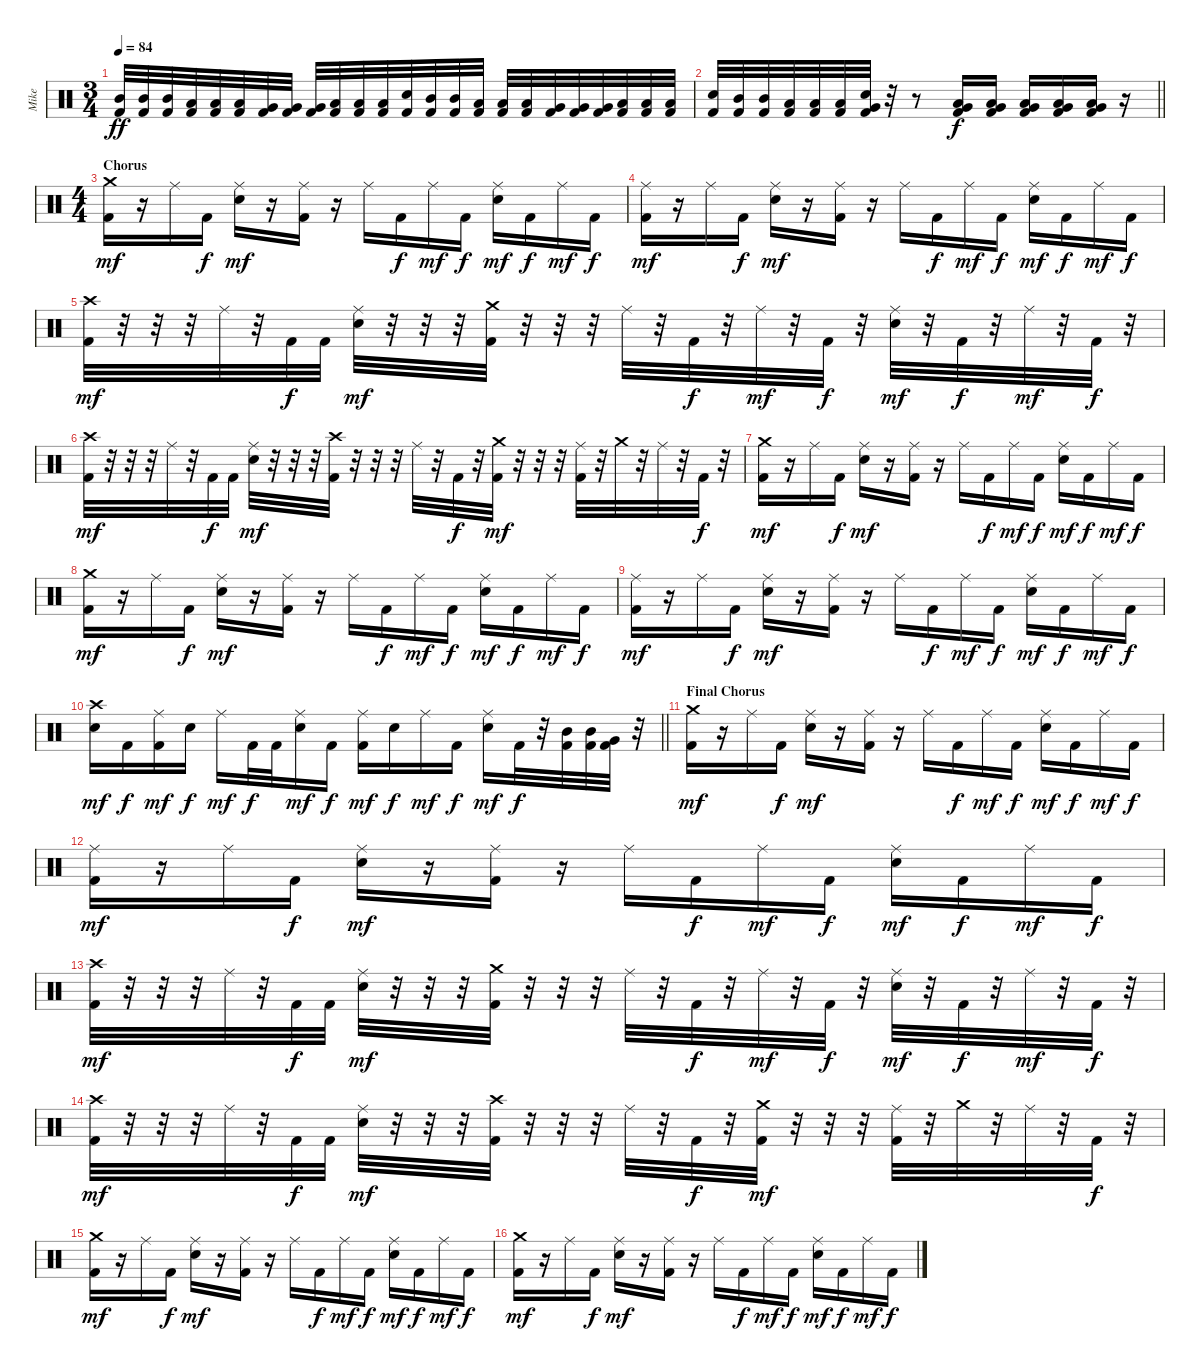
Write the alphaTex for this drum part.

\track ("Mike" "Mike") {instrument percussion}
\staff {score}
\articulation defaults
\ts (3 4)
\tempo 84
\clef neutral
\ks c
("Mid Tom (hit)" "Kick (hit) 2").32{dy ff} ("Mid Tom (hit)" "Kick (hit) 2").32 ("Mid Tom (hit)" "Kick (hit) 2").32 ("Low Tom (hit)" "Kick (hit) 2").32 ("Low Tom (hit)" "Kick (hit) 2").32 ("Low Tom (hit)" "Kick (hit) 2").32 ("Very Low Tom (hit)" "Kick (hit) 2").32 ("Very Low Tom (hit)" "Kick (hit) 2").32 ("Very Low Tom (hit)" "Kick (hit) 2").32 ("Low Floor Tom (hit)" "Kick (hit) 2").32 ("Low Floor Tom (hit)" "Kick (hit) 2").32 ("Low Floor Tom (hit)" "Kick (hit) 2").32 ("Snare (hit) 2" "Kick (hit) 2").32 ("Mid Tom (hit)" "Kick (hit) 2").32 ("Mid Tom (hit)" "Kick (hit) 2").32 ("Low Tom (hit)" "Kick (hit) 2").32 ("Low Tom (hit)" "Kick (hit) 2").32 ("Low Tom (hit)" "Kick (hit) 2").32 ("Very Low Tom (hit)" "Kick (hit) 2").32 ("Very Low Tom (hit)" "Kick (hit) 2").32 ("Very Low Tom (hit)" "Kick (hit) 2").32 ("Low Floor Tom (hit)" "Kick (hit) 2").32 ("Low Floor Tom (hit)" "Kick (hit) 2").32 ("Low Floor Tom (hit)" "Kick (hit) 2").32 |
\barLineRight lightlight
("Snare (hit) 2" "Kick (hit) 2").32 ("Mid Tom (hit)" "Kick (hit) 2").32 ("Mid Tom (hit)" "Kick (hit) 2").32 ("Low Tom (hit)" "Kick (hit) 2").32 ("Low Tom (hit)" "Kick (hit) 2").32 ("Low Tom (hit)" "Kick (hit) 2").32 ("Very Low Tom (hit)" "Snare (hit) 2" "Kick (hit) 2").32 r.32 r.8 ("Very Low Tom (hit)" "Low Tom (hit)" "Kick (hit) 2").16{dy f} ("Very Low Tom (hit)" "Low Tom (hit)" "Kick (hit) 2").16 ("Very Low Tom (hit)" "Low Tom (hit)" "Kick (hit) 2").16 ("Very Low Tom (hit)" "Low Tom (hit)" "Kick (hit) 2").16 ("Very Low Tom (hit)" "Low Tom (hit)" "Kick (hit) 2").16 r.16 |
\ts (4 4)
\section ("" "Chorus")
("Crash medium (hit)" "Kick (hit) 2").16{dy mf} r.16 "Ride (middle)".16 "Kick (hit) 2".16{dy f} ("Ride (middle)" "Snare (hit) 2").16{dy mf} r.16 ("Ride (middle)" "Kick (hit) 2").16 r.16 "Ride (middle)".16 "Kick (hit) 2".16{dy f} "Ride (middle)".16{dy mf} "Kick (hit) 2".16{dy f} ("Ride (middle)" "Snare (hit) 2").16{dy mf} "Kick (hit) 2".16{dy f} "Ride (middle)".16{dy mf} "Kick (hit) 2".16{dy f} |
("Ride (middle)" "Kick (hit) 2").16{dy mf} r.16 "Ride (middle)".16 "Kick (hit) 2".16{dy f} ("Ride (middle)" "Snare (hit) 2").16{dy mf} r.16 ("Ride (middle)" "Kick (hit) 2").16 r.16 "Ride (middle)".16 "Kick (hit) 2".16{dy f} "Ride (middle)".16{dy mf} "Kick (hit) 2".16{dy f} ("Ride (middle)" "Snare (hit) 2").16{dy mf} "Kick (hit) 2".16{dy f} "Ride (middle)".16{dy mf} "Kick (hit) 2".16{dy f} |
("Crash high (hit)" "Kick (hit) 2").32{dy mf} r.32 r.32 r.32 "Ride (middle)".32 r.32 "Kick (hit) 2".32{dy f} "Kick (hit) 2".32 ("Ride (middle)" "Snare (hit) 2").32{dy mf} r.32 r.32 r.32 ("Crash medium (hit)" "Kick (hit) 2").32 r.32 r.32 r.32 "Ride (middle)".32 r.32 "Kick (hit) 2".32{dy f} r.32 "Ride (middle)".32{dy mf} r.32 "Kick (hit) 2".32{dy f} r.32 ("Ride (middle)" "Snare (hit) 2").32{dy mf} r.32 "Kick (hit) 2".32{dy f} r.32 "Ride (middle)".32{dy mf} r.32 "Kick (hit) 2".32{dy f} r.32 |
("Crash high (hit)" "Kick (hit) 2").32{dy mf} r.32 r.32 r.32 "Ride (middle)".32 r.32 "Kick (hit) 2".32{dy f} "Kick (hit) 2".32 ("Ride (middle)" "Snare (hit) 2").32{dy mf} r.32 r.32 r.32 ("Crash high (hit)" "Kick (hit) 2").32 r.32 r.32 r.32 "Ride (middle)".32 r.32 "Kick (hit) 2".32{dy f} r.32 ("Crash medium (hit)" "Kick (hit) 2").32{dy mf} r.32 r.32 r.32 ("Ride (middle)" "Kick (hit) 2").32 r.32 "Crash medium (hit)".32 r.32 "Ride (middle)".32 r.32 "Kick (hit) 2".32{dy f} r.32 |
("Crash medium (hit)" "Kick (hit) 2").16{dy mf} r.16 "Ride (middle)".16 "Kick (hit) 2".16{dy f} ("Ride (middle)" "Snare (hit) 2").16{dy mf} r.16 ("Ride (middle)" "Kick (hit) 2").16 r.16 "Ride (middle)".16 "Kick (hit) 2".16{dy f} "Ride (middle)".16{dy mf} "Kick (hit) 2".16{dy f} ("Ride (middle)" "Snare (hit) 2").16{dy mf} "Kick (hit) 2".16{dy f} "Ride (middle)".16{dy mf} "Kick (hit) 2".16{dy f} |
("Crash medium (hit)" "Kick (hit) 2").16{dy mf} r.16 "Ride (middle)".16 "Kick (hit) 2".16{dy f} ("Ride (middle)" "Snare (hit) 2").16{dy mf} r.16 ("Ride (middle)" "Kick (hit) 2").16 r.16 "Ride (middle)".16 "Kick (hit) 2".16{dy f} "Ride (middle)".16{dy mf} "Kick (hit) 2".16{dy f} ("Ride (middle)" "Snare (hit) 2").16{dy mf} "Kick (hit) 2".16{dy f} "Ride (middle)".16{dy mf} "Kick (hit) 2".16{dy f} |
("Ride (middle)" "Kick (hit) 2").16{dy mf} r.16 "Ride (middle)".16 "Kick (hit) 2".16{dy f} ("Ride (middle)" "Snare (hit) 2").16{dy mf} r.16 ("Ride (middle)" "Kick (hit) 2").16 r.16 "Ride (middle)".16 "Kick (hit) 2".16{dy f} "Ride (middle)".16{dy mf} "Kick (hit) 2".16{dy f} ("Ride (middle)" "Snare (hit) 2").16{dy mf} "Kick (hit) 2".16{dy f} "Ride (middle)".16{dy mf} "Kick (hit) 2".16{dy f} |
\barLineRight lightlight
("Crash high (hit)" "Snare (hit) 2").16{dy mf} "Kick (hit) 2".16{dy f} ("Ride (middle)" "Kick (hit) 2").16{dy mf} "Snare (hit) 2".16{dy f} "Ride (middle)".16{dy mf} "Kick (hit) 2".32{dy f} "Kick (hit) 2".32 ("Ride (middle)" "Snare (hit) 2").16{dy mf} "Kick (hit) 2".16{dy f} ("Ride (middle)" "Kick (hit) 2").16{dy mf} "Snare (hit) 2".16{dy f} "Ride (middle)".16{dy mf} "Kick (hit) 2".16{dy f} ("Ride (middle)" "Snare (hit) 2").16{dy mf} "Kick (hit) 2".32{dy f} r.32 ("Mid Tom (hit)" "Kick (hit) 2").32 ("Mid Tom (hit)" "Kick (hit) 2").32 ("Very Low Tom (hit)" "Kick (hit) 2").32 r.32 |
\section ("" "Final Chorus")
("Crash medium (hit)" "Kick (hit) 2").16{dy mf} r.16 "Ride (middle)".16 "Kick (hit) 2".16{dy f} ("Ride (middle)" "Snare (hit) 2").16{dy mf} r.16 ("Ride (middle)" "Kick (hit) 2").16 r.16 "Ride (middle)".16 "Kick (hit) 2".16{dy f} "Ride (middle)".16{dy mf} "Kick (hit) 2".16{dy f} ("Ride (middle)" "Snare (hit) 2").16{dy mf} "Kick (hit) 2".16{dy f} "Ride (middle)".16{dy mf} "Kick (hit) 2".16{dy f} |
("Ride (middle)" "Kick (hit) 2").16{dy mf} r.16 "Ride (middle)".16 "Kick (hit) 2".16{dy f} ("Ride (middle)" "Snare (hit) 2").16{dy mf} r.16 ("Ride (middle)" "Kick (hit) 2").16 r.16 "Ride (middle)".16 "Kick (hit) 2".16{dy f} "Ride (middle)".16{dy mf} "Kick (hit) 2".16{dy f} ("Ride (middle)" "Snare (hit) 2").16{dy mf} "Kick (hit) 2".16{dy f} "Ride (middle)".16{dy mf} "Kick (hit) 2".16{dy f} |
("Crash high (hit)" "Kick (hit) 2").32{dy mf} r.32 r.32 r.32 "Ride (middle)".32 r.32 "Kick (hit) 2".32{dy f} "Kick (hit) 2".32 ("Ride (middle)" "Snare (hit) 2").32{dy mf} r.32 r.32 r.32 ("Crash medium (hit)" "Kick (hit) 2").32 r.32 r.32 r.32 "Ride (middle)".32 r.32 "Kick (hit) 2".32{dy f} r.32 "Ride (middle)".32{dy mf} r.32 "Kick (hit) 2".32{dy f} r.32 ("Ride (middle)" "Snare (hit) 2").32{dy mf} r.32 "Kick (hit) 2".32{dy f} r.32 "Ride (middle)".32{dy mf} r.32 "Kick (hit) 2".32{dy f} r.32 |
("Crash high (hit)" "Kick (hit) 2").32{dy mf} r.32 r.32 r.32 "Ride (middle)".32 r.32 "Kick (hit) 2".32{dy f} "Kick (hit) 2".32 ("Ride (middle)" "Snare (hit) 2").32{dy mf} r.32 r.32 r.32 ("Crash high (hit)" "Kick (hit) 2").32 r.32 r.32 r.32 "Ride (middle)".32 r.32 "Kick (hit) 2".32{dy f} r.32 ("Crash medium (hit)" "Kick (hit) 2").32{dy mf} r.32 r.32 r.32 ("Ride (middle)" "Kick (hit) 2").32 r.32 "Crash medium (hit)".32 r.32 "Ride (middle)".32 r.32 "Kick (hit) 2".32{dy f} r.32 |
("Crash medium (hit)" "Kick (hit) 2").16{dy mf} r.16 "Ride (middle)".16 "Kick (hit) 2".16{dy f} ("Ride (middle)" "Snare (hit) 2").16{dy mf} r.16 ("Ride (middle)" "Kick (hit) 2").16 r.16 "Ride (middle)".16 "Kick (hit) 2".16{dy f} "Ride (middle)".16{dy mf} "Kick (hit) 2".16{dy f} ("Ride (middle)" "Snare (hit) 2").16{dy mf} "Kick (hit) 2".16{dy f} "Ride (middle)".16{dy mf} "Kick (hit) 2".16{dy f} |
("Crash medium (hit)" "Kick (hit) 2").16{dy mf} r.16 "Ride (middle)".16 "Kick (hit) 2".16{dy f} ("Ride (middle)" "Snare (hit) 2").16{dy mf} r.16 ("Ride (middle)" "Kick (hit) 2").16 r.16 "Ride (middle)".16 "Kick (hit) 2".16{dy f} "Ride (middle)".16{dy mf} "Kick (hit) 2".16{dy f} ("Ride (middle)" "Snare (hit) 2").16{dy mf} "Kick (hit) 2".16{dy f} "Ride (middle)".16{dy mf} "Kick (hit) 2".16{dy f}
